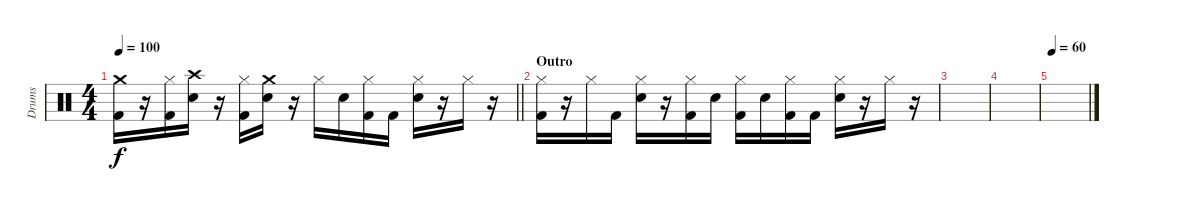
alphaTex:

\track ("Drums" "Drums") {instrument percussion}
\staff {score}
\articulation defaults
\ts (4 4)
\tempo 100
\clef neutral
\barLineRight lightlight
\ks c
("Crash medium (hit)" "Kick (hit) 2").16{dy f} r.16 ("Hi-Hat (closed)" "Kick (hit) 2").16 ("Crash high (hit)" "Snare (hit) 2").16 r.16 ("Hi-Hat (closed)" "Kick (hit) 2").16 ("Crash medium (hit)" "Snare (hit) 2").16 r.16 "Hi-Hat (closed)".16 "Snare (hit) 2".16 ("Hi-Hat (closed)" "Kick (hit) 2").16 "Kick (hit) 2".16 ("Hi-Hat (closed)" "Snare (hit) 2").16 r.16 "Hi-Hat (closed)".16 r.16 |
\section ("" "Outro")
("Hi-Hat (closed)" "Kick (hit) 2").16{volume 7} r.16 "Hi-Hat (closed)".16 "Kick (hit) 2".16 ("Hi-Hat (closed)" "Electric Snare (hit)").16 r.16 ("Hi-Hat (closed)" "Kick (hit) 2").16 "Electric Snare (hit)".16 ("Hi-Hat (closed)" "Kick (hit) 2").16 "Electric Snare (hit)".16 ("Hi-Hat (closed)" "Kick (hit) 2").16 "Kick (hit) 2".16 ("Hi-Hat (closed)" "Electric Snare (hit)").16 r.16 "Hi-Hat (closed)".16 r.16 |
|
|
\tempo 60
